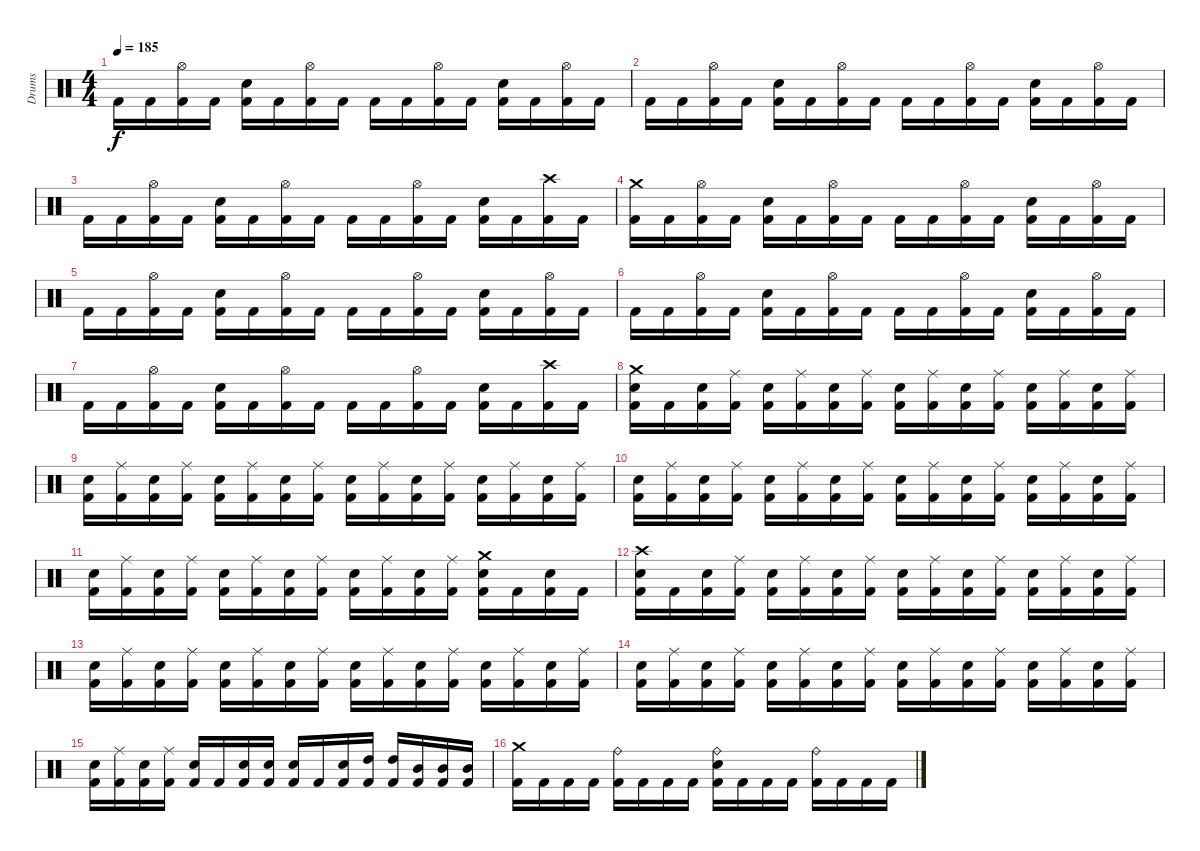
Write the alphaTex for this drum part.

\track ("Drums" "Drums") {instrument percussion}
\staff {score}
\articulation defaults
\ts (4 4)
\tempo 185
\clef neutral
\ks c "Kick (hit) 2".16{dy f} "Kick (hit) 2".16
("Hi-Hat (open)" "Kick (hit) 2").16 "Kick (hit) 2".16 ("Electric Snare (hit)" "Kick (hit) 2").16 "Kick (hit) 2".16 ("Hi-Hat (open)" "Kick (hit) 2").16 "Kick (hit) 2".16 "Kick (hit) 2".16 "Kick (hit) 2".16 ("Hi-Hat (open)" "Kick (hit) 2").16 "Kick (hit) 2".16 ("Electric Snare (hit)" "Kick (hit) 2").16 "Kick (hit) 2".16 ("Hi-Hat (open)" "Kick (hit) 2").16 "Kick (hit) 2".16 |
"Kick (hit) 2".16 "Kick (hit) 2".16 ("Hi-Hat (open)" "Kick (hit) 2").16 "Kick (hit) 2".16 ("Electric Snare (hit)" "Kick (hit) 2").16 "Kick (hit) 2".16 ("Hi-Hat (open)" "Kick (hit) 2").16 "Kick (hit) 2".16 "Kick (hit) 2".16 "Kick (hit) 2".16 ("Hi-Hat (open)" "Kick (hit) 2").16 "Kick (hit) 2".16 ("Electric Snare (hit)" "Kick (hit) 2").16 "Kick (hit) 2".16 ("Hi-Hat (open)" "Kick (hit) 2").16 "Kick (hit) 2".16 |
"Kick (hit) 2".16 "Kick (hit) 2".16 ("Hi-Hat (open)" "Kick (hit) 2").16 "Kick (hit) 2".16 ("Electric Snare (hit)" "Kick (hit) 2").16 "Kick (hit) 2".16 ("Hi-Hat (open)" "Kick (hit) 2").16 "Kick (hit) 2".16 "Kick (hit) 2".16 "Kick (hit) 2".16 ("Hi-Hat (open)" "Kick (hit) 2").16 "Kick (hit) 2".16 ("Electric Snare (hit)" "Kick (hit) 2").16 "Kick (hit) 2".16 ("Crash high (hit)" "Kick (hit) 2").16 "Kick (hit) 2".16 |
("Crash medium (hit)" "Kick (hit) 2").16 "Kick (hit) 2".16 ("Hi-Hat (open)" "Kick (hit) 2").16 "Kick (hit) 2".16 ("Electric Snare (hit)" "Kick (hit) 2").16 "Kick (hit) 2".16 ("Hi-Hat (open)" "Kick (hit) 2").16 "Kick (hit) 2".16 "Kick (hit) 2".16 "Kick (hit) 2".16 ("Hi-Hat (open)" "Kick (hit) 2").16 "Kick (hit) 2".16 ("Electric Snare (hit)" "Kick (hit) 2").16 "Kick (hit) 2".16 ("Hi-Hat (open)" "Kick (hit) 2").16 "Kick (hit) 2".16 |
"Kick (hit) 2".16 "Kick (hit) 2".16 ("Hi-Hat (open)" "Kick (hit) 2").16 "Kick (hit) 2".16 ("Electric Snare (hit)" "Kick (hit) 2").16 "Kick (hit) 2".16 ("Hi-Hat (open)" "Kick (hit) 2").16 "Kick (hit) 2".16 "Kick (hit) 2".16 "Kick (hit) 2".16 ("Hi-Hat (open)" "Kick (hit) 2").16 "Kick (hit) 2".16 ("Electric Snare (hit)" "Kick (hit) 2").16 "Kick (hit) 2".16 ("Hi-Hat (open)" "Kick (hit) 2").16 "Kick (hit) 2".16 |
"Kick (hit) 2".16 "Kick (hit) 2".16 ("Hi-Hat (open)" "Kick (hit) 2").16 "Kick (hit) 2".16 ("Electric Snare (hit)" "Kick (hit) 2").16 "Kick (hit) 2".16 ("Hi-Hat (open)" "Kick (hit) 2").16 "Kick (hit) 2".16 "Kick (hit) 2".16 "Kick (hit) 2".16 ("Hi-Hat (open)" "Kick (hit) 2").16 "Kick (hit) 2".16 ("Electric Snare (hit)" "Kick (hit) 2").16 "Kick (hit) 2".16 ("Hi-Hat (open)" "Kick (hit) 2").16 "Kick (hit) 2".16 |
"Kick (hit) 2".16 "Kick (hit) 2".16 ("Hi-Hat (open)" "Kick (hit) 2").16 "Kick (hit) 2".16 ("Electric Snare (hit)" "Kick (hit) 2").16 "Kick (hit) 2".16 ("Hi-Hat (open)" "Kick (hit) 2").16 "Kick (hit) 2".16 "Kick (hit) 2".16 "Kick (hit) 2".16 ("Hi-Hat (open)" "Kick (hit) 2").16 "Kick (hit) 2".16 ("Electric Snare (hit)" "Kick (hit) 2").16 "Kick (hit) 2".16 ("Crash high (hit)" "Kick (hit) 2").16 "Kick (hit) 2".16 |
("Crash medium (hit)" "Electric Snare (hit)" "Kick (hit) 2").16 "Kick (hit) 2".16 ("Electric Snare (hit)" "Kick (hit) 2").16 ("Ride (middle)" "Kick (hit) 2").16 ("Electric Snare (hit)" "Kick (hit) 2").16 ("Ride (middle)" "Kick (hit) 2").16 ("Electric Snare (hit)" "Kick (hit) 2").16 ("Ride (middle)" "Kick (hit) 2").16 ("Electric Snare (hit)" "Kick (hit) 2").16 ("Ride (middle)" "Kick (hit) 2").16 ("Electric Snare (hit)" "Kick (hit) 2").16 ("Ride (middle)" "Kick (hit) 2").16 ("Electric Snare (hit)" "Kick (hit) 2").16 ("Ride (middle)" "Kick (hit) 2").16 ("Electric Snare (hit)" "Kick (hit) 2").16 ("Ride (middle)" "Kick (hit) 2").16 |
("Electric Snare (hit)" "Kick (hit) 2").16 ("Ride (middle)" "Kick (hit) 2").16 ("Electric Snare (hit)" "Kick (hit) 2").16 ("Ride (middle)" "Kick (hit) 2").16 ("Electric Snare (hit)" "Kick (hit) 2").16 ("Ride (middle)" "Kick (hit) 2").16 ("Electric Snare (hit)" "Kick (hit) 2").16 ("Ride (middle)" "Kick (hit) 2").16 ("Electric Snare (hit)" "Kick (hit) 2").16 ("Ride (middle)" "Kick (hit) 2").16 ("Electric Snare (hit)" "Kick (hit) 2").16 ("Ride (middle)" "Kick (hit) 2").16 ("Electric Snare (hit)" "Kick (hit) 2").16 ("Ride (middle)" "Kick (hit) 2").16 ("Electric Snare (hit)" "Kick (hit) 2").16 ("Ride (middle)" "Kick (hit) 2").16 |
("Electric Snare (hit)" "Kick (hit) 2").16 ("Ride (middle)" "Kick (hit) 2").16 ("Electric Snare (hit)" "Kick (hit) 2").16 ("Ride (middle)" "Kick (hit) 2").16 ("Electric Snare (hit)" "Kick (hit) 2").16 ("Ride (middle)" "Kick (hit) 2").16 ("Electric Snare (hit)" "Kick (hit) 2").16 ("Ride (middle)" "Kick (hit) 2").16 ("Electric Snare (hit)" "Kick (hit) 2").16 ("Ride (middle)" "Kick (hit) 2").16 ("Electric Snare (hit)" "Kick (hit) 2").16 ("Ride (middle)" "Kick (hit) 2").16 ("Electric Snare (hit)" "Kick (hit) 2").16 ("Ride (middle)" "Kick (hit) 2").16 ("Electric Snare (hit)" "Kick (hit) 2").16 ("Ride (middle)" "Kick (hit) 2").16 |
("Electric Snare (hit)" "Kick (hit) 2").16 ("Ride (middle)" "Kick (hit) 2").16 ("Electric Snare (hit)" "Kick (hit) 2").16 ("Ride (middle)" "Kick (hit) 2").16 ("Electric Snare (hit)" "Kick (hit) 2").16 ("Ride (middle)" "Kick (hit) 2").16 ("Electric Snare (hit)" "Kick (hit) 2").16 ("Ride (middle)" "Kick (hit) 2").16 ("Electric Snare (hit)" "Kick (hit) 2").16 ("Ride (middle)" "Kick (hit) 2").16 ("Electric Snare (hit)" "Kick (hit) 2").16 ("Ride (middle)" "Kick (hit) 2").16 ("Crash medium (hit)" "Electric Snare (hit)" "Kick (hit) 2").16 "Kick (hit) 2".16 ("Electric Snare (hit)" "Kick (hit) 2").16 "Kick (hit) 2".16 |
("Crash high (hit)" "Electric Snare (hit)" "Kick (hit) 2").16 "Kick (hit) 2".16 ("Electric Snare (hit)" "Kick (hit) 2").16 ("Ride (middle)" "Kick (hit) 2").16 ("Electric Snare (hit)" "Kick (hit) 2").16 ("Ride (middle)" "Kick (hit) 2").16 ("Electric Snare (hit)" "Kick (hit) 2").16 ("Ride (middle)" "Kick (hit) 2").16 ("Electric Snare (hit)" "Kick (hit) 2").16 ("Ride (middle)" "Kick (hit) 2").16 ("Electric Snare (hit)" "Kick (hit) 2").16 ("Ride (middle)" "Kick (hit) 2").16 ("Electric Snare (hit)" "Kick (hit) 2").16 ("Ride (middle)" "Kick (hit) 2").16 ("Electric Snare (hit)" "Kick (hit) 2").16 ("Ride (middle)" "Kick (hit) 2").16 |
("Electric Snare (hit)" "Kick (hit) 2").16 ("Ride (middle)" "Kick (hit) 2").16 ("Electric Snare (hit)" "Kick (hit) 2").16 ("Ride (middle)" "Kick (hit) 2").16 ("Electric Snare (hit)" "Kick (hit) 2").16 ("Ride (middle)" "Kick (hit) 2").16 ("Electric Snare (hit)" "Kick (hit) 2").16 ("Ride (middle)" "Kick (hit) 2").16 ("Electric Snare (hit)" "Kick (hit) 2").16 ("Ride (middle)" "Kick (hit) 2").16 ("Electric Snare (hit)" "Kick (hit) 2").16 ("Ride (middle)" "Kick (hit) 2").16 ("Electric Snare (hit)" "Kick (hit) 2").16 ("Ride (middle)" "Kick (hit) 2").16 ("Electric Snare (hit)" "Kick (hit) 2").16 ("Ride (middle)" "Kick (hit) 2").16 |
("Electric Snare (hit)" "Kick (hit) 2").16 ("Ride (middle)" "Kick (hit) 2").16 ("Electric Snare (hit)" "Kick (hit) 2").16 ("Ride (middle)" "Kick (hit) 2").16 ("Electric Snare (hit)" "Kick (hit) 2").16 ("Ride (middle)" "Kick (hit) 2").16 ("Electric Snare (hit)" "Kick (hit) 2").16 ("Ride (middle)" "Kick (hit) 2").16 ("Electric Snare (hit)" "Kick (hit) 2").16 ("Ride (middle)" "Kick (hit) 2").16 ("Electric Snare (hit)" "Kick (hit) 2").16 ("Ride (middle)" "Kick (hit) 2").16 ("Electric Snare (hit)" "Kick (hit) 2").16 ("Ride (middle)" "Kick (hit) 2").16 ("Electric Snare (hit)" "Kick (hit) 2").16 ("Ride (middle)" "Kick (hit) 2").16 |
("Electric Snare (hit)" "Kick (hit) 2").16 ("Ride (middle)" "Kick (hit) 2").16 ("Electric Snare (hit)" "Kick (hit) 2").16 ("Ride (middle)" "Kick (hit) 2").16 ("Electric Snare (hit)" "Kick (hit) 2").16 "Kick (hit) 2".16 ("Electric Snare (hit)" "Kick (hit) 2").16 ("Electric Snare (hit)" "Kick (hit) 2").16 ("Electric Snare (hit)" "Kick (hit) 2").16 "Kick (hit) 2".16 ("Electric Snare (hit)" "Kick (hit) 2").16 ("High Tom (hit)" "Kick (hit) 2").16 ("High Tom (hit)" "Kick (hit) 2").16 ("Mid Tom (hit)" "Kick (hit) 2").16 ("Mid Tom (hit)" "Kick (hit) 2").16 ("Mid Tom (hit)" "Kick (hit) 2").16 |
("Crash medium (hit)" "Kick (hit) 2").16 "Kick (hit) 2".16 "Kick (hit) 2".16 "Kick (hit) 2".16 ("Ride (bell)" "Kick (hit) 2").16 "Kick (hit) 2".16 "Kick (hit) 2".16 "Kick (hit) 2".16 ("Ride (bell)" "Electric Snare (hit)" "Kick (hit) 2").16 "Kick (hit) 2".16 "Kick (hit) 2".16 "Kick (hit) 2".16 ("Ride (bell)" "Kick (hit) 2").16 "Kick (hit) 2".16 "Kick (hit) 2".16 "Kick (hit) 2".16
